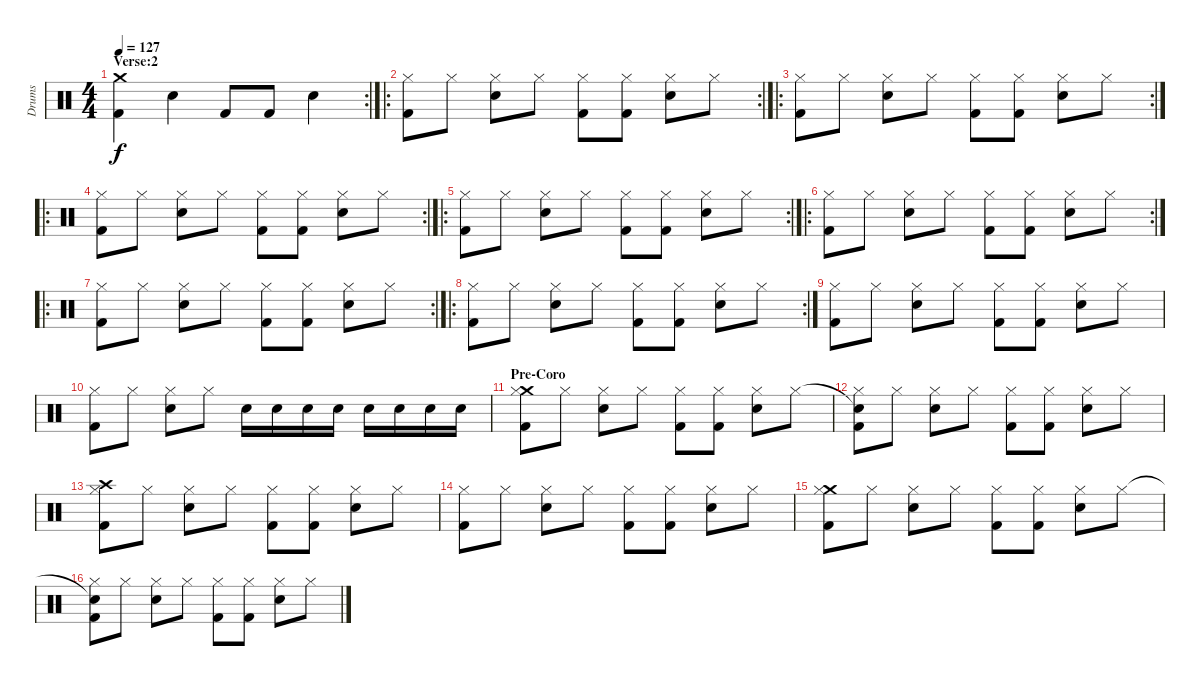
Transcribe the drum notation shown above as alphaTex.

\track ("Drums" "Drums") {instrument percussion}
\staff {score}
\articulation defaults
\rc 2
\ts (4 4)
\section ("" "Verse:2")
\tempo 127
\clef neutral
\ks c
("Crash medium (hit)"{t} "Kick (hit) 2").4{dy f} "Electric Snare (hit)".4 "Kick (hit) 2".8 "Kick (hit) 2".8 "Electric Snare (hit)".4 |
\ro
\rc 2
("Hi-Hat (closed)" "Kick (hit) 2").8 "Hi-Hat (closed)".8 ("Hi-Hat (closed)" "Electric Snare (hit)").8 "Hi-Hat (closed)".8 ("Hi-Hat (closed)" "Kick (hit) 2").8 ("Hi-Hat (closed)" "Kick (hit) 2").8 ("Hi-Hat (closed)" "Electric Snare (hit)").8 "Hi-Hat (closed)".8 |
\ro
\rc 2
("Hi-Hat (closed)" "Kick (hit) 2").8 "Hi-Hat (closed)".8 ("Hi-Hat (closed)" "Electric Snare (hit)").8 "Hi-Hat (closed)".8 ("Hi-Hat (closed)" "Kick (hit) 2").8 ("Hi-Hat (closed)" "Kick (hit) 2").8 ("Hi-Hat (closed)" "Electric Snare (hit)").8 "Hi-Hat (closed)".8 |
\ro
\rc 2
("Hi-Hat (closed)" "Kick (hit) 2").8 "Hi-Hat (closed)".8 ("Hi-Hat (closed)" "Electric Snare (hit)").8 "Hi-Hat (closed)".8 ("Hi-Hat (closed)" "Kick (hit) 2").8 ("Hi-Hat (closed)" "Kick (hit) 2").8 ("Hi-Hat (closed)" "Electric Snare (hit)").8 "Hi-Hat (closed)".8 |
\ro
\rc 2
("Hi-Hat (closed)" "Kick (hit) 2").8 "Hi-Hat (closed)".8 ("Hi-Hat (closed)" "Electric Snare (hit)").8 "Hi-Hat (closed)".8 ("Hi-Hat (closed)" "Kick (hit) 2").8 ("Hi-Hat (closed)" "Kick (hit) 2").8 ("Hi-Hat (closed)" "Electric Snare (hit)").8 "Hi-Hat (closed)".8 |
\ro
\rc 2
("Hi-Hat (closed)" "Kick (hit) 2").8 "Hi-Hat (closed)".8 ("Hi-Hat (closed)" "Electric Snare (hit)").8 "Hi-Hat (closed)".8 ("Hi-Hat (closed)" "Kick (hit) 2").8 ("Hi-Hat (closed)" "Kick (hit) 2").8 ("Hi-Hat (closed)" "Electric Snare (hit)").8 "Hi-Hat (closed)".8 |
\ro
\rc 2
("Hi-Hat (closed)" "Kick (hit) 2").8 "Hi-Hat (closed)".8 ("Hi-Hat (closed)" "Electric Snare (hit)").8 "Hi-Hat (closed)".8 ("Hi-Hat (closed)" "Kick (hit) 2").8 ("Hi-Hat (closed)" "Kick (hit) 2").8 ("Hi-Hat (closed)" "Electric Snare (hit)").8 "Hi-Hat (closed)".8 |
\ro
\rc 2
("Hi-Hat (closed)" "Kick (hit) 2").8 "Hi-Hat (closed)".8 ("Hi-Hat (closed)" "Electric Snare (hit)").8 "Hi-Hat (closed)".8 ("Hi-Hat (closed)" "Kick (hit) 2").8 ("Hi-Hat (closed)" "Kick (hit) 2").8 ("Hi-Hat (closed)" "Electric Snare (hit)").8 "Hi-Hat (closed)".8 |
("Hi-Hat (closed)" "Kick (hit) 2").8 "Hi-Hat (closed)".8 ("Hi-Hat (closed)" "Electric Snare (hit)").8 "Hi-Hat (closed)".8 ("Hi-Hat (closed)" "Kick (hit) 2").8 ("Hi-Hat (closed)" "Kick (hit) 2").8 ("Hi-Hat (closed)" "Electric Snare (hit)").8 "Hi-Hat (closed)".8 |
("Hi-Hat (closed)" "Kick (hit) 2").8 "Hi-Hat (closed)".8 ("Hi-Hat (closed)" "Electric Snare (hit)").8 "Hi-Hat (closed)".8 "Electric Snare (hit)".16 "Electric Snare (hit)".16 "Electric Snare (hit)".16 "Electric Snare (hit)".16 "Electric Snare (hit)".16 "Electric Snare (hit)".16 "Electric Snare (hit)".16 "Electric Snare (hit)".16 |
\section ("" "Pre-Coro")
("Crash medium (hit)" "Hi-Hat (closed)" "Kick (hit) 2").8 "Hi-Hat (closed)".8 ("Hi-Hat (closed)" "Electric Snare (hit)").8 "Hi-Hat (closed)".8 ("Hi-Hat (closed)" "Kick (hit) 2").8 ("Hi-Hat (closed)" "Kick (hit) 2").8 ("Hi-Hat (closed)" "Electric Snare (hit)").8 "Hi-Hat (closed)".8 |
("Snare (hit)"{t} "Hi-Hat (closed)" "Kick (hit) 2").8 "Hi-Hat (closed)".8 ("Hi-Hat (closed)" "Electric Snare (hit)").8 "Hi-Hat (closed)".8 ("Hi-Hat (closed)" "Kick (hit) 2").8 ("Hi-Hat (closed)" "Kick (hit) 2").8 ("Hi-Hat (closed)" "Electric Snare (hit)").8 "Hi-Hat (closed)".8 |
("Crash high (hit)" "Hi-Hat (closed)" "Kick (hit) 2").8 "Hi-Hat (closed)".8 ("Hi-Hat (closed)" "Electric Snare (hit)").8 "Hi-Hat (closed)".8 ("Hi-Hat (closed)" "Kick (hit) 2").8 ("Hi-Hat (closed)" "Kick (hit) 2").8 ("Hi-Hat (closed)" "Electric Snare (hit)").8 "Hi-Hat (closed)".8 |
("Hi-Hat (closed)" "Kick (hit) 2").8 "Hi-Hat (closed)".8 ("Hi-Hat (closed)" "Electric Snare (hit)").8 "Hi-Hat (closed)".8 ("Hi-Hat (closed)" "Kick (hit) 2").8 ("Hi-Hat (closed)" "Kick (hit) 2").8 ("Hi-Hat (closed)" "Electric Snare (hit)").8 "Hi-Hat (closed)".8 |
("Crash medium (hit)" "Hi-Hat (closed)" "Kick (hit) 2").8 "Hi-Hat (closed)".8 ("Hi-Hat (closed)" "Electric Snare (hit)").8 "Hi-Hat (closed)".8 ("Hi-Hat (closed)" "Kick (hit) 2").8 ("Hi-Hat (closed)" "Kick (hit) 2").8 ("Hi-Hat (closed)" "Electric Snare (hit)").8 "Hi-Hat (closed)".8 |
("Snare (hit)"{t} "Hi-Hat (closed)" "Kick (hit) 2").8 "Hi-Hat (closed)".8 ("Hi-Hat (closed)" "Electric Snare (hit)").8 "Hi-Hat (closed)".8 ("Hi-Hat (closed)" "Kick (hit) 2").8 ("Hi-Hat (closed)" "Kick (hit) 2").8 ("Hi-Hat (closed)" "Electric Snare (hit)").8 "Hi-Hat (closed)".8
